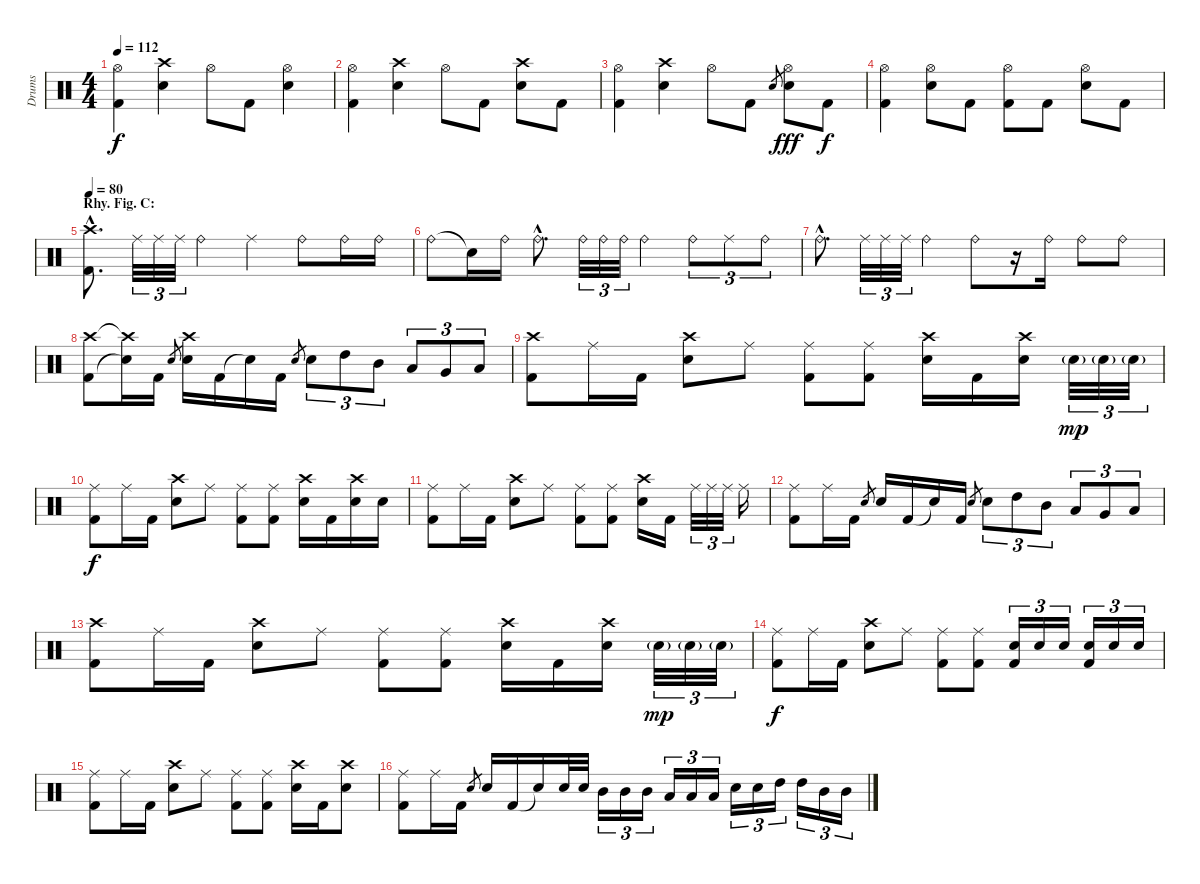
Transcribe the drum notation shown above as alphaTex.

\track ("Drums" "Drums") {instrument percussion}
\staff {score}
\articulation defaults
\ts (4 4)
\tempo 112
\clef neutral
\ks c
("Hi-Hat (open)" "Kick (hit) 2").4{dy f} ("Crash high (hit)" "Electric Snare (hit)").4 "Hi-Hat (open)".8 "Kick (hit) 2".8 ("Hi-Hat (open)" "Electric Snare (hit)").4 |
("Hi-Hat (open)" "Kick (hit) 2").4 ("Crash high (hit)" "Electric Snare (hit)").4 "Hi-Hat (open)".8 "Kick (hit) 2".8 ("Crash high (hit)" "Electric Snare (hit)").8 "Kick (hit) 2".8 |
("Hi-Hat (open)" "Kick (hit) 2").4 ("Crash high (hit)" "Electric Snare (hit)").4 "Hi-Hat (open)".8 "Kick (hit) 2".8 "Electric Snare (hit)".8{gr} ("Hi-Hat (open)" "Electric Snare (hit)").8{dy fff} "Kick (hit) 2".8{dy f} |
("Hi-Hat (open)" "Kick (hit) 2").4 ("Hi-Hat (open)" "Electric Snare (hit)").8 "Kick (hit) 2".8 ("Hi-Hat (open)" "Kick (hit) 2").8 "Kick (hit) 2".8 ("Hi-Hat (open)" "Electric Snare (hit)").8 "Kick (hit) 2".8 |
\section ("" "Rhy. Fig. C:")
\tempo 80
("Crash high (hit)"{hac} "Kick (hit) 2"{hac}).8{d} "Ride (middle)".32{tu (3 2)} "Ride (middle)".32{tu (3 2)} "Ride (middle)".32{tu (3 2)} "Ride (bell)".4 "Ride (middle)".4 "Ride (bell)".8 "Ride (bell)".16 "Ride (bell)".16 |
"Ride (bell)".8 "Snare (hit)"{t}.16 "Ride (bell)".16 "Ride (bell)"{hac}.8{d} "Ride (bell)".32{tu (3 2)} "Ride (bell)".32{tu (3 2)} "Ride (bell)".32{tu (3 2)} "Ride (bell)".4 "Ride (bell)".8{tu (3 2)} "Ride (middle)".8{tu (3 2)} "Ride (bell)".8{tu (3 2)} |
"Ride (bell)"{hac}.8{d} "Ride (middle)".32{tu (3 2)} "Ride (middle)".32{tu (3 2)} "Ride (middle)".32{tu (3 2)} "Ride (bell)".4 "Ride (bell)".8 r.16 "Ride (bell)".16 "Ride (bell)".8 "Ride (bell)".8 |
("Crash high (hit)" "Kick (hit) 2").8 ("Crash high (hit)"{t} "Snare (hit)"{t}).16 "Kick (hit) 2".16 "Electric Snare (hit)".8{gr} ("Crash high (hit)" "Electric Snare (hit)").16 "Kick (hit) 2".16 "Snare (hit)"{t}.16 "Kick (hit) 2".16 "Electric Snare (hit)".8{gr} "Electric Snare (hit)".8{tu (3 2)} "High Tom (hit)".8{tu (3 2)} "Mid Tom (hit)".8{tu (3 2)} "Low Tom (hit)".8{tu (3 2)} "Very Low Tom (hit)".8{tu (3 2)} "Low Floor Tom (hit)".8{tu (3 2)} |
("Crash high (hit)" "Kick (hit) 2").8 "Ride (middle)".16 "Kick (hit) 2".16 ("Crash high (hit)" "Electric Snare (hit)").8 "Ride (middle)".8 ("Ride (middle)" "Kick (hit) 2").8 ("Ride (middle)" "Kick (hit) 2").8 ("Crash high (hit)" "Electric Snare (hit)").16 "Kick (hit) 2".16 ("Crash high (hit)" "Electric Snare (hit)").16 "Electric Snare (hit)"{g}.32{tu (3 2) dy mp} "Electric Snare (hit)"{g}.32{tu (3 2)} "Electric Snare (hit)"{g}.32{tu (3 2)} |
("Ride (middle)" "Kick (hit) 2").8{dy f} "Ride (middle)".16 "Kick (hit) 2".16 ("Crash high (hit)" "Electric Snare (hit)").8 "Ride (middle)".8 ("Ride (middle)" "Kick (hit) 2").8 ("Ride (middle)" "Kick (hit) 2").8 ("Crash high (hit)" "Electric Snare (hit)").16 "Kick (hit) 2".16 ("Crash high (hit)" "Electric Snare (hit)").16 "Electric Snare (hit)".16 |
("Ride (middle)" "Kick (hit) 2").8 "Ride (middle)".16 "Kick (hit) 2".16 ("Crash high (hit)" "Electric Snare (hit)").8 "Ride (middle)".8 ("Ride (middle)" "Kick (hit) 2").8 ("Ride (middle)" "Kick (hit) 2").8 ("Crash high (hit)" "Electric Snare (hit)").16 "Kick (hit) 2".16 "Ride (middle)".32{tu (3 2)} "Ride (middle)".32{tu (3 2)} "Ride (middle)".32{tu (3 2)} "Ride (middle)".16 |
("Ride (middle)" "Kick (hit) 2").8 "Ride (middle)".16 "Kick (hit) 2".16 "Electric Snare (hit)".8{gr} "Electric Snare (hit)".16 "Kick (hit) 2".16 "Snare (hit)"{t}.16 "Kick (hit) 2".16 "Electric Snare (hit)".8{gr} "Electric Snare (hit)".8{tu (3 2)} "High Tom (hit)".8{tu (3 2)} "Mid Tom (hit)".8{tu (3 2)} "Low Tom (hit)".8{tu (3 2)} "Very Low Tom (hit)".8{tu (3 2)} "Low Floor Tom (hit)".8{tu (3 2)} |
("Crash high (hit)" "Kick (hit) 2").8 "Ride (middle)".16 "Kick (hit) 2".16 ("Crash high (hit)" "Electric Snare (hit)").8 "Ride (middle)".8 ("Ride (middle)" "Kick (hit) 2").8 ("Ride (middle)" "Kick (hit) 2").8 ("Crash high (hit)" "Electric Snare (hit)").16 "Kick (hit) 2".16 ("Crash high (hit)" "Electric Snare (hit)").16 "Electric Snare (hit)"{g}.32{tu (3 2) dy mp} "Electric Snare (hit)"{g}.32{tu (3 2)} "Electric Snare (hit)"{g}.32{tu (3 2)} |
("Ride (middle)" "Kick (hit) 2").8{dy f} "Ride (middle)".16 "Kick (hit) 2".16 ("Crash high (hit)" "Electric Snare (hit)").8 "Ride (middle)".8 ("Ride (middle)" "Kick (hit) 2").8 ("Ride (middle)" "Kick (hit) 2").8 ("Electric Snare (hit)" "Kick (hit) 2").16{tu (3 2)} "Electric Snare (hit)".16{tu (3 2)} "Electric Snare (hit)".16{tu (3 2)} ("Electric Snare (hit)" "Kick (hit) 2").16{tu (3 2)} "Electric Snare (hit)".16{tu (3 2)} "Electric Snare (hit)".16{tu (3 2)} |
("Ride (middle)" "Kick (hit) 2").8 "Ride (middle)".16 "Kick (hit) 2".16 ("Crash high (hit)" "Electric Snare (hit)").8 "Ride (middle)".8 ("Ride (middle)" "Kick (hit) 2").8 ("Ride (middle)" "Kick (hit) 2").8 ("Crash high (hit)" "Electric Snare (hit)").16 "Kick (hit) 2".16 ("Crash high (hit)" "Electric Snare (hit)").8 |
("Ride (middle)" "Kick (hit) 2").8 "Ride (middle)".16 "Kick (hit) 2".16 "Electric Snare (hit)".8{gr} "Electric Snare (hit)".16 "Kick (hit) 2".16 "Snare (hit)"{t}.16 "Electric Snare (hit)".32 "Electric Snare (hit)".32 "Mid Tom (hit)".16{tu (3 2)} "Mid Tom (hit)".16{tu (3 2)} "Mid Tom (hit)".16{tu (3 2)} "Low Tom (hit)".16{tu (3 2)} "Low Tom (hit)".16{tu (3 2)} "Low Tom (hit)".16{tu (3 2)} "Electric Snare (hit)".16{tu (3 2)} "Electric Snare (hit)".16{tu (3 2)} "High Tom (hit)".16{tu (3 2)} "High Tom (hit)".16{tu (3 2)} "Mid Tom (hit)".16{tu (3 2)} "Mid Tom (hit)".16{tu (3 2)}
